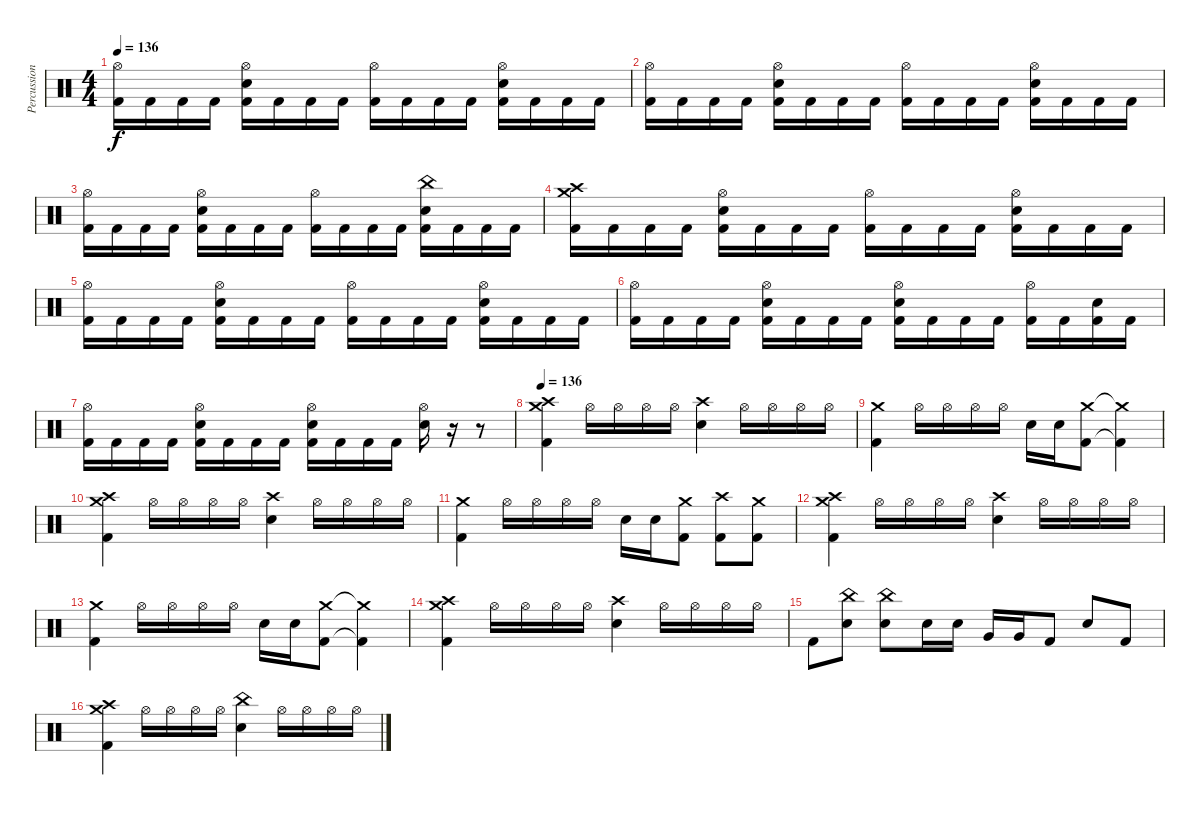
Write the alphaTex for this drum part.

\track ("Percussion" "Percussion") {instrument percussion}
\staff {score}
\articulation defaults
\ts (4 4)
\tempo 136
\clef neutral
\ks c
("Hi-Hat (open)" "Kick (hit) 2").16{dy f} "Kick (hit) 2".16 "Kick (hit) 2".16 "Kick (hit) 2".16 ("Hi-Hat (open)" "Electric Snare (hit)" "Kick (hit) 2").16 "Kick (hit) 2".16 "Kick (hit) 2".16 "Kick (hit) 2".16 ("Hi-Hat (open)" "Kick (hit) 2").16 "Kick (hit) 2".16 "Kick (hit) 2".16 "Kick (hit) 2".16 ("Hi-Hat (open)" "Electric Snare (hit)" "Kick (hit) 2").16 "Kick (hit) 2".16 "Kick (hit) 2".16 "Kick (hit) 2".16 |
("Hi-Hat (open)" "Kick (hit) 2").16 "Kick (hit) 2".16 "Kick (hit) 2".16 "Kick (hit) 2".16 ("Hi-Hat (open)" "Electric Snare (hit)" "Kick (hit) 2").16 "Kick (hit) 2".16 "Kick (hit) 2".16 "Kick (hit) 2".16 ("Hi-Hat (open)" "Kick (hit) 2").16 "Kick (hit) 2".16 "Kick (hit) 2".16 "Kick (hit) 2".16 ("Hi-Hat (open)" "Electric Snare (hit)" "Kick (hit) 2").16 "Kick (hit) 2".16 "Kick (hit) 2".16 "Kick (hit) 2".16 |
("Hi-Hat (open)" "Kick (hit) 2").16 "Kick (hit) 2".16 "Kick (hit) 2".16 "Kick (hit) 2".16 ("Hi-Hat (open)" "Electric Snare (hit)" "Kick (hit) 2").16 "Kick (hit) 2".16 "Kick (hit) 2".16 "Kick (hit) 2".16 ("Hi-Hat (open)" "Kick (hit) 2").16 "Kick (hit) 2".16 "Kick (hit) 2".16 "Kick (hit) 2".16 ("China (hit)" "Electric Snare (hit)" "Kick (hit) 2").16 "Kick (hit) 2".16 "Kick (hit) 2".16 "Kick (hit) 2".16 |
("Crash medium (hit)" "Crash high (hit)" "Kick (hit) 2").16 "Kick (hit) 2".16 "Kick (hit) 2".16 "Kick (hit) 2".16 ("Hi-Hat (open)" "Electric Snare (hit)" "Kick (hit) 2").16 "Kick (hit) 2".16 "Kick (hit) 2".16 "Kick (hit) 2".16 ("Hi-Hat (open)" "Kick (hit) 2").16 "Kick (hit) 2".16 "Kick (hit) 2".16 "Kick (hit) 2".16 ("Hi-Hat (open)" "Electric Snare (hit)" "Kick (hit) 2").16 "Kick (hit) 2".16 "Kick (hit) 2".16 "Kick (hit) 2".16 |
("Hi-Hat (open)" "Kick (hit) 2").16 "Kick (hit) 2".16 "Kick (hit) 2".16 "Kick (hit) 2".16 ("Hi-Hat (open)" "Electric Snare (hit)" "Kick (hit) 2").16 "Kick (hit) 2".16 "Kick (hit) 2".16 "Kick (hit) 2".16 ("Hi-Hat (open)" "Kick (hit) 2").16 "Kick (hit) 2".16 "Kick (hit) 2".16 "Kick (hit) 2".16 ("Hi-Hat (open)" "Electric Snare (hit)" "Kick (hit) 2").16 "Kick (hit) 2".16 "Kick (hit) 2".16 "Kick (hit) 2".16 |
("Hi-Hat (open)" "Kick (hit) 2").16 "Kick (hit) 2".16 "Kick (hit) 2".16 "Kick (hit) 2".16 ("Hi-Hat (open)" "Electric Snare (hit)" "Kick (hit) 2").16 "Kick (hit) 2".16 "Kick (hit) 2".16 "Kick (hit) 2".16 ("Hi-Hat (open)" "Electric Snare (hit)" "Kick (hit) 2").16 "Kick (hit) 2".16 "Kick (hit) 2".16 "Kick (hit) 2".16 ("Hi-Hat (open)" "Kick (hit) 2").16 "Kick (hit) 2".16 ("Electric Snare (hit)" "Kick (hit) 2").16 "Kick (hit) 2".16 |
("Hi-Hat (open)" "Kick (hit) 2").16 "Kick (hit) 2".16 "Kick (hit) 2".16 "Kick (hit) 2".16 ("Hi-Hat (open)" "Electric Snare (hit)" "Kick (hit) 2").16 "Kick (hit) 2".16 "Kick (hit) 2".16 "Kick (hit) 2".16 ("Hi-Hat (open)" "Electric Snare (hit)" "Kick (hit) 2").16 "Kick (hit) 2".16 "Kick (hit) 2".16 "Kick (hit) 2".16 ("Hi-Hat (open)" "Electric Snare (hit)").16 r.16 r.8 |
\tempo 136
("Crash medium (hit)" "Crash high (hit)" "Kick (hit) 2").4 "Hi-Hat (open)".16 "Hi-Hat (open)".16 "Hi-Hat (open)".16 "Hi-Hat (open)".16 ("Crash high (hit)" "Electric Snare (hit)").4 "Hi-Hat (open)".16 "Hi-Hat (open)".16 "Hi-Hat (open)".16 "Hi-Hat (open)".16 |
("Crash medium (hit)" "Kick (hit) 2").4 "Hi-Hat (open)".16 "Hi-Hat (open)".16 "Hi-Hat (open)".16 "Hi-Hat (open)".16 "Electric Snare (hit)".16 "Electric Snare (hit)".16 ("Crash medium (hit)" "Kick (hit) 2").8 ("Crash medium (hit)"{t} "Kick (hit) 2"{t}).4 |
("Crash medium (hit)" "Crash high (hit)" "Kick (hit) 2").4 "Hi-Hat (open)".16 "Hi-Hat (open)".16 "Hi-Hat (open)".16 "Hi-Hat (open)".16 ("Crash high (hit)" "Electric Snare (hit)").4 "Hi-Hat (open)".16 "Hi-Hat (open)".16 "Hi-Hat (open)".16 "Hi-Hat (open)".16 |
("Crash medium (hit)" "Kick (hit) 2").4 "Hi-Hat (open)".16 "Hi-Hat (open)".16 "Hi-Hat (open)".16 "Hi-Hat (open)".16 "Electric Snare (hit)".16 "Electric Snare (hit)".16 ("Crash medium (hit)" "Kick (hit) 2").8 ("Crash high (hit)" "Kick (hit) 2").8 ("Crash medium (hit)" "Kick (hit) 2").8 |
("Crash medium (hit)" "Crash high (hit)" "Kick (hit) 2").4 "Hi-Hat (open)".16 "Hi-Hat (open)".16 "Hi-Hat (open)".16 "Hi-Hat (open)".16 ("Crash high (hit)" "Electric Snare (hit)").4 "Hi-Hat (open)".16 "Hi-Hat (open)".16 "Hi-Hat (open)".16 "Hi-Hat (open)".16 |
("Crash medium (hit)" "Kick (hit) 2").4 "Hi-Hat (open)".16 "Hi-Hat (open)".16 "Hi-Hat (open)".16 "Hi-Hat (open)".16 "Electric Snare (hit)".16 "Electric Snare (hit)".16 ("Crash medium (hit)" "Kick (hit) 2").8 ("Crash medium (hit)"{t} "Kick (hit) 2"{t}).4 |
("Crash medium (hit)" "Crash high (hit)" "Kick (hit) 2").4 "Hi-Hat (open)".16 "Hi-Hat (open)".16 "Hi-Hat (open)".16 "Hi-Hat (open)".16 ("Crash high (hit)" "Electric Snare (hit)").4 "Hi-Hat (open)".16 "Hi-Hat (open)".16 "Hi-Hat (open)".16 "Hi-Hat (open)".16 |
"Kick (hit) 2".8 ("China (hit)" "Electric Snare (hit)").8 ("China (hit)" "Electric Snare (hit)").8 "Electric Snare (hit)".16 "Electric Snare (hit)".16 "Very Low Tom (hit)".16 "Very Low Tom (hit)".16 "Kick (hit) 2".8 "Electric Snare (hit)".8 "Kick (hit) 2".8 |
("Crash medium (hit)" "Crash high (hit)" "Kick (hit) 2").4 "Hi-Hat (open)".16 "Hi-Hat (open)".16 "Hi-Hat (open)".16 "Hi-Hat (open)".16 ("China (hit)" "Electric Snare (hit)").4 "Hi-Hat (open)".16 "Hi-Hat (open)".16 "Hi-Hat (open)".16 "Hi-Hat (open)".16
